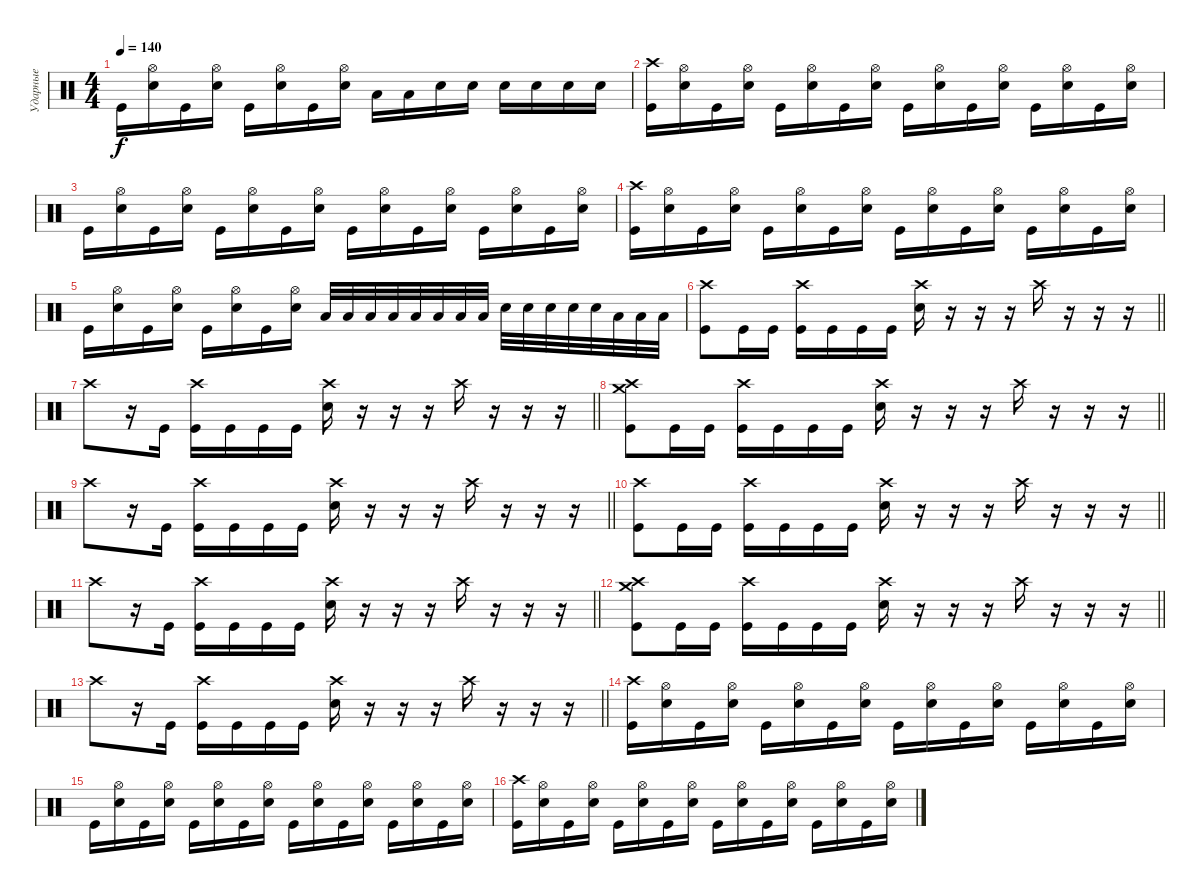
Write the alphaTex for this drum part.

\track ("Ударные" "Ударные") {instrument percussion}
\staff {score}
\articulation defaults
\ts (4 4)
\tempo 140
\clef neutral
\ks c "Kick (hit)".16{dy f}
("Snare (hit) 2" "Hi-Hat (open)").16 "Kick (hit)".16 ("Snare (hit) 2" "Hi-Hat (open)").16 "Kick (hit)".16 ("Snare (hit) 2" "Hi-Hat (open)").16 "Kick (hit)".16 ("Snare (hit) 2" "Hi-Hat (open)").16 "Low Tom (hit)".16 "Low Tom (hit)".16 "Snare (hit) 2".16 "Snare (hit) 2".16 "Snare (hit) 2".16 "Snare (hit) 2".16 "Snare (hit) 2".16 "Snare (hit) 2".16 |
("Kick (hit)" "Crash high (hit)").16 ("Snare (hit) 2" "Hi-Hat (open)").16 "Kick (hit)".16 ("Snare (hit) 2" "Hi-Hat (open)").16 "Kick (hit)".16 ("Snare (hit) 2" "Hi-Hat (open)").16 "Kick (hit)".16 ("Snare (hit) 2" "Hi-Hat (open)").16 "Kick (hit)".16 ("Snare (hit) 2" "Hi-Hat (open)").16 "Kick (hit)".16 ("Snare (hit) 2" "Hi-Hat (open)").16 "Kick (hit)".16 ("Snare (hit) 2" "Hi-Hat (open)").16 "Kick (hit)".16 ("Snare (hit) 2" "Hi-Hat (open)").16 |
"Kick (hit)".16 ("Snare (hit) 2" "Hi-Hat (open)").16 "Kick (hit)".16 ("Snare (hit) 2" "Hi-Hat (open)").16 "Kick (hit)".16 ("Snare (hit) 2" "Hi-Hat (open)").16 "Kick (hit)".16 ("Snare (hit) 2" "Hi-Hat (open)").16 "Kick (hit)".16 ("Snare (hit) 2" "Hi-Hat (open)").16 "Kick (hit)".16 ("Snare (hit) 2" "Hi-Hat (open)").16 "Kick (hit)".16 ("Snare (hit) 2" "Hi-Hat (open)").16 "Kick (hit)".16 ("Snare (hit) 2" "Hi-Hat (open)").16 |
("Kick (hit)" "Crash high (hit)").16 ("Snare (hit) 2" "Hi-Hat (open)").16 "Kick (hit)".16 ("Snare (hit) 2" "Hi-Hat (open)").16 "Kick (hit)".16 ("Snare (hit) 2" "Hi-Hat (open)").16 "Kick (hit)".16 ("Snare (hit) 2" "Hi-Hat (open)").16 "Kick (hit)".16 ("Snare (hit) 2" "Hi-Hat (open)").16 "Kick (hit)".16 ("Snare (hit) 2" "Hi-Hat (open)").16 "Kick (hit)".16 ("Snare (hit) 2" "Hi-Hat (open)").16 "Kick (hit)".16 ("Snare (hit) 2" "Hi-Hat (open)").16 |
"Kick (hit)".16 ("Snare (hit) 2" "Hi-Hat (open)").16 "Kick (hit)".16 ("Snare (hit) 2" "Hi-Hat (open)").16 "Kick (hit)".16 ("Snare (hit) 2" "Hi-Hat (open)").16 "Kick (hit)".16 ("Snare (hit) 2" "Hi-Hat (open)").16 "Low Tom (hit)".32 "Low Tom (hit)".32 "Low Tom (hit)".32 "Low Tom (hit)".32 "Low Tom (hit)".32 "Low Tom (hit)".32 "Low Tom (hit)".32 "Low Tom (hit)".32 "Snare (hit) 2".32 "Snare (hit) 2".32 "Snare (hit) 2".32 "Snare (hit) 2".32 "Snare (hit) 2".32 "Low Tom (hit)".32 "Low Tom (hit)".32 "Low Tom (hit)".32 |
\barLineRight lightlight
("Kick (hit)" "Crash high (hit)").8 "Kick (hit)".16 "Kick (hit)".16 ("Kick (hit)" "Crash high (hit)").16 "Kick (hit)".16 "Kick (hit)".16 "Kick (hit)".16 ("Snare (hit) 2" "Crash high (hit)").16 r.16 r.16 r.16 "Crash high (hit)".16 r.16 r.16 r.16 |
\barLineRight lightlight "Crash high (hit)".8
r.16 "Kick (hit)".16 ("Kick (hit)" "Crash high (hit)").16 "Kick (hit)".16 "Kick (hit)".16 "Kick (hit)".16 ("Crash high (hit)" "Snare (hit) 2").16 r.16 r.16 r.16 "Crash high (hit)".16 r.16 r.16 r.16 |
\barLineRight lightlight
("Kick (hit)" "Crash high (hit)" "Crash medium (hit)").8 "Kick (hit)".16 "Kick (hit)".16 ("Kick (hit)" "Crash high (hit)").16 "Kick (hit)".16 "Kick (hit)".16 "Kick (hit)".16 ("Snare (hit) 2" "Crash high (hit)").16 r.16 r.16 r.16 "Crash high (hit)".16 r.16 r.16 r.16 |
\barLineRight lightlight "Crash high (hit)".8
r.16 "Kick (hit)".16 ("Kick (hit)" "Crash high (hit)").16 "Kick (hit)".16 "Kick (hit)".16 "Kick (hit)".16 ("Crash high (hit)" "Snare (hit) 2").16 r.16 r.16 r.16 "Crash high (hit)".16 r.16 r.16 r.16 |
\barLineRight lightlight
("Kick (hit)" "Crash high (hit)").8 "Kick (hit)".16 "Kick (hit)".16 ("Kick (hit)" "Crash high (hit)").16 "Kick (hit)".16 "Kick (hit)".16 "Kick (hit)".16 ("Snare (hit) 2" "Crash high (hit)").16 r.16 r.16 r.16 "Crash high (hit)".16 r.16 r.16 r.16 |
\barLineRight lightlight "Crash high (hit)".8
r.16 "Kick (hit)".16 ("Kick (hit)" "Crash high (hit)").16 "Kick (hit)".16 "Kick (hit)".16 "Kick (hit)".16 ("Crash high (hit)" "Snare (hit) 2").16 r.16 r.16 r.16 "Crash high (hit)".16 r.16 r.16 r.16 |
\barLineRight lightlight
("Kick (hit)" "Crash high (hit)" "Crash medium (hit)").8 "Kick (hit)".16 "Kick (hit)".16 ("Kick (hit)" "Crash high (hit)").16 "Kick (hit)".16 "Kick (hit)".16 "Kick (hit)".16 ("Snare (hit) 2" "Crash high (hit)").16 r.16 r.16 r.16 "Crash high (hit)".16 r.16 r.16 r.16 |
\barLineRight lightlight "Crash high (hit)".8
r.16 "Kick (hit)".16 ("Kick (hit)" "Crash high (hit)").16 "Kick (hit)".16 "Kick (hit)".16 "Kick (hit)".16 ("Crash high (hit)" "Snare (hit) 2").16 r.16 r.16 r.16 "Crash high (hit)".16 r.16 r.16 r.16 |
("Kick (hit)" "Crash high (hit)").16 ("Snare (hit) 2" "Hi-Hat (open)").16 "Kick (hit)".16 ("Snare (hit) 2" "Hi-Hat (open)").16 "Kick (hit)".16 ("Snare (hit) 2" "Hi-Hat (open)").16 "Kick (hit)".16 ("Snare (hit) 2" "Hi-Hat (open)").16 "Kick (hit)".16 ("Snare (hit) 2" "Hi-Hat (open)").16 "Kick (hit)".16 ("Snare (hit) 2" "Hi-Hat (open)").16 "Kick (hit)".16 ("Snare (hit) 2" "Hi-Hat (open)").16 "Kick (hit)".16 ("Snare (hit) 2" "Hi-Hat (open)").16 |
"Kick (hit)".16 ("Snare (hit) 2" "Hi-Hat (open)").16 "Kick (hit)".16 ("Snare (hit) 2" "Hi-Hat (open)").16 "Kick (hit)".16 ("Snare (hit) 2" "Hi-Hat (open)").16 "Kick (hit)".16 ("Snare (hit) 2" "Hi-Hat (open)").16 "Kick (hit)".16 ("Snare (hit) 2" "Hi-Hat (open)").16 "Kick (hit)".16 ("Snare (hit) 2" "Hi-Hat (open)").16 "Kick (hit)".16 ("Snare (hit) 2" "Hi-Hat (open)").16 "Kick (hit)".16 ("Snare (hit) 2" "Hi-Hat (open)").16 |
("Kick (hit)" "Crash high (hit)").16 ("Snare (hit) 2" "Hi-Hat (open)").16 "Kick (hit)".16 ("Snare (hit) 2" "Hi-Hat (open)").16 "Kick (hit)".16 ("Snare (hit) 2" "Hi-Hat (open)").16 "Kick (hit)".16 ("Snare (hit) 2" "Hi-Hat (open)").16 "Kick (hit)".16 ("Snare (hit) 2" "Hi-Hat (open)").16 "Kick (hit)".16 ("Snare (hit) 2" "Hi-Hat (open)").16 "Kick (hit)".16 ("Snare (hit) 2" "Hi-Hat (open)").16 "Kick (hit)".16 ("Snare (hit) 2" "Hi-Hat (open)").16
